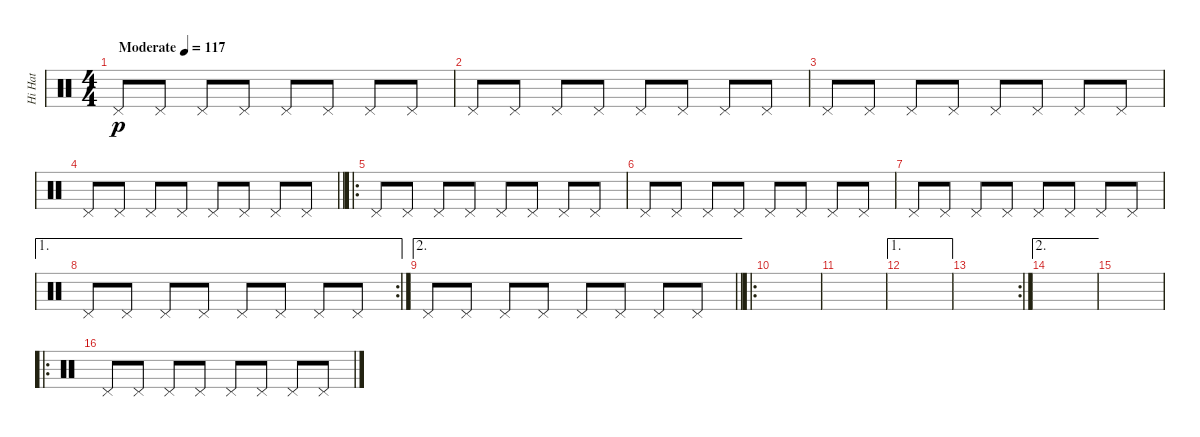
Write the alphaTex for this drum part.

\track ("Hi Hat" "Hi Hat") {instrument percussion}
\staff {score}
\articulation defaults
\ts (4 4)
\tempo (117 "Moderate")
\clef neutral
\ks c "Pedal Hi-Hat (hit)".8{dy p} "Pedal Hi-Hat (hit)".8 "Pedal Hi-Hat (hit)".8 "Pedal Hi-Hat (hit)".8 "Pedal Hi-Hat (hit)".8 "Pedal Hi-Hat (hit)".8 "Pedal Hi-Hat (hit)".8 "Pedal Hi-Hat (hit)".8
|
"Pedal Hi-Hat (hit)".8 "Pedal Hi-Hat (hit)".8 "Pedal Hi-Hat (hit)".8 "Pedal Hi-Hat (hit)".8 "Pedal Hi-Hat (hit)".8 "Pedal Hi-Hat (hit)".8 "Pedal Hi-Hat (hit)".8 "Pedal Hi-Hat (hit)".8 |
"Pedal Hi-Hat (hit)".8 "Pedal Hi-Hat (hit)".8 "Pedal Hi-Hat (hit)".8 "Pedal Hi-Hat (hit)".8 "Pedal Hi-Hat (hit)".8 "Pedal Hi-Hat (hit)".8 "Pedal Hi-Hat (hit)".8 "Pedal Hi-Hat (hit)".8 |
\barLineRight lightlight "Pedal Hi-Hat (hit)".8 "Pedal Hi-Hat (hit)".8 "Pedal Hi-Hat (hit)".8 "Pedal Hi-Hat (hit)".8 "Pedal Hi-Hat (hit)".8 "Pedal Hi-Hat (hit)".8 "Pedal Hi-Hat (hit)".8 "Pedal Hi-Hat (hit)".8
|
\ro "Pedal Hi-Hat (hit)".8 "Pedal Hi-Hat (hit)".8 "Pedal Hi-Hat (hit)".8 "Pedal Hi-Hat (hit)".8 "Pedal Hi-Hat (hit)".8 "Pedal Hi-Hat (hit)".8 "Pedal Hi-Hat (hit)".8 "Pedal Hi-Hat (hit)".8
|
"Pedal Hi-Hat (hit)".8 "Pedal Hi-Hat (hit)".8 "Pedal Hi-Hat (hit)".8 "Pedal Hi-Hat (hit)".8 "Pedal Hi-Hat (hit)".8 "Pedal Hi-Hat (hit)".8 "Pedal Hi-Hat (hit)".8 "Pedal Hi-Hat (hit)".8 |
"Pedal Hi-Hat (hit)".8 "Pedal Hi-Hat (hit)".8 "Pedal Hi-Hat (hit)".8 "Pedal Hi-Hat (hit)".8 "Pedal Hi-Hat (hit)".8 "Pedal Hi-Hat (hit)".8 "Pedal Hi-Hat (hit)".8 "Pedal Hi-Hat (hit)".8 |
\ae 1
\rc 2 "Pedal Hi-Hat (hit)".8 "Pedal Hi-Hat (hit)".8 "Pedal Hi-Hat (hit)".8 "Pedal Hi-Hat (hit)".8 "Pedal Hi-Hat (hit)".8 "Pedal Hi-Hat (hit)".8 "Pedal Hi-Hat (hit)".8 "Pedal Hi-Hat (hit)".8
|
\ae 2
\barLineRight lightlight "Pedal Hi-Hat (hit)".8 "Pedal Hi-Hat (hit)".8 "Pedal Hi-Hat (hit)".8 "Pedal Hi-Hat (hit)".8 "Pedal Hi-Hat (hit)".8 "Pedal Hi-Hat (hit)".8 "Pedal Hi-Hat (hit)".8 "Pedal Hi-Hat (hit)".8
|
\ro
|
|
\ae 1
|
\rc 2
|
\ae 2
|
|
\ro "Pedal Hi-Hat (hit)".8 "Pedal Hi-Hat (hit)".8 "Pedal Hi-Hat (hit)".8 "Pedal Hi-Hat (hit)".8 "Pedal Hi-Hat (hit)".8 "Pedal Hi-Hat (hit)".8 "Pedal Hi-Hat (hit)".8 "Pedal Hi-Hat (hit)".8
